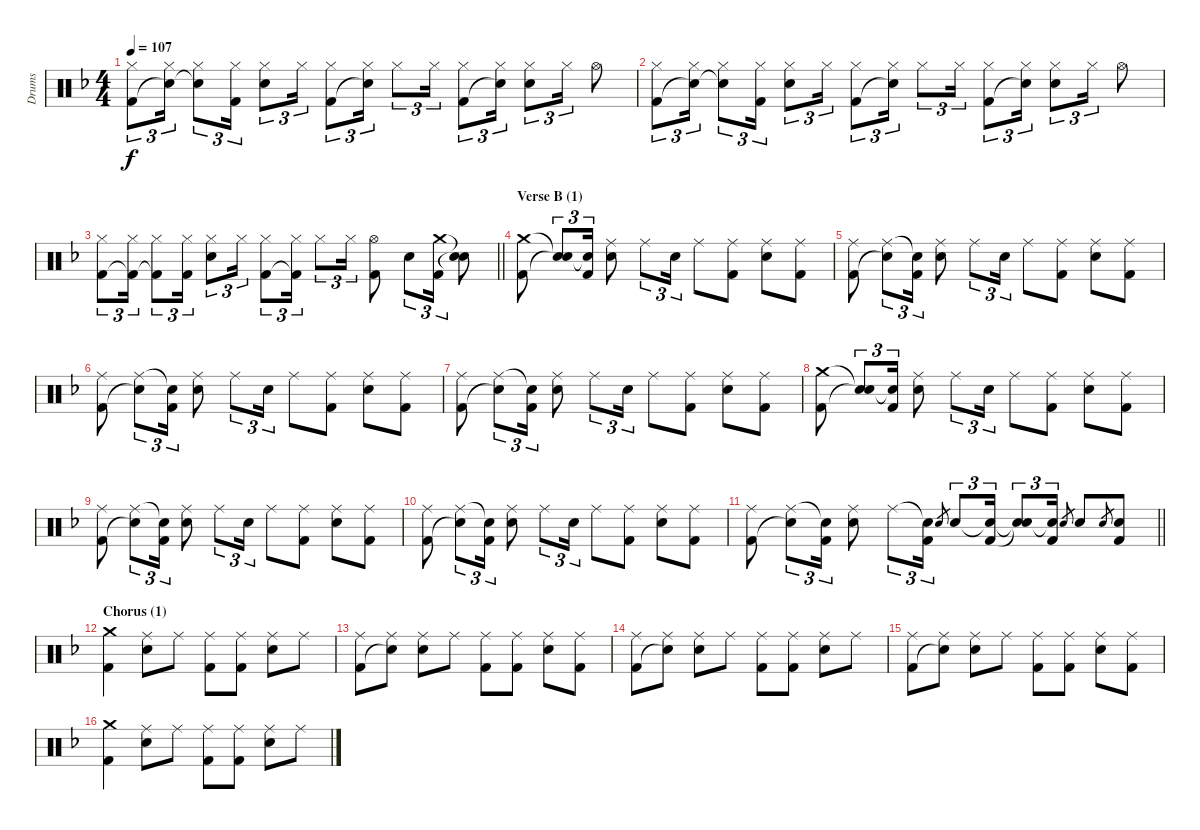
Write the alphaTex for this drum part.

\track ("Drums" "Drums") {instrument percussion}
\staff {score}
\articulation defaults
\ts (4 4)
\tempo 107
\clef neutral
\ks dminor
("Hi-Hat (closed)" "Kick (hit) 2").8{tu (3 2) dy f} ("Hi-Hat (closed)" "Snare (hit)"{t}).16{tu (3 2)} ("Hi-Hat (closed)" "Snare (hit)"{t}).8{tu (3 2)} ("Hi-Hat (closed)" "Kick (hit) 2").16{tu (3 2)} ("Hi-Hat (closed)" "Electric Snare (hit)").8{tu (3 2)} "Hi-Hat (closed)".16{tu (3 2)} ("Hi-Hat (closed)" "Kick (hit) 2").8{tu (3 2)} ("Hi-Hat (closed)" "Snare (hit)"{t}).16{tu (3 2)} "Hi-Hat (closed)".8{tu (3 2)} "Hi-Hat (closed)".16{tu (3 2)} ("Hi-Hat (closed)" "Kick (hit) 2").8{tu (3 2)} ("Hi-Hat (closed)" "Snare (hit)"{t}).16{tu (3 2)} ("Hi-Hat (closed)" "Electric Snare (hit)").8{tu (3 2)} "Hi-Hat (closed)".16{tu (3 2)} "Hi-Hat (open)".8 |
("Hi-Hat (closed)" "Kick (hit) 2").8{tu (3 2)} ("Hi-Hat (closed)" "Snare (hit)"{t}).16{tu (3 2)} ("Hi-Hat (closed)" "Snare (hit)"{t}).8{tu (3 2)} ("Hi-Hat (closed)" "Kick (hit) 2").16{tu (3 2)} ("Hi-Hat (closed)" "Electric Snare (hit)").8{tu (3 2)} "Hi-Hat (closed)".16{tu (3 2)} ("Hi-Hat (closed)" "Kick (hit) 2").8{tu (3 2)} ("Hi-Hat (closed)" "Snare (hit)"{t}).16{tu (3 2)} "Hi-Hat (closed)".8{tu (3 2)} "Hi-Hat (closed)".16{tu (3 2)} ("Hi-Hat (closed)" "Kick (hit) 2").8{tu (3 2)} ("Hi-Hat (closed)" "Snare (hit)"{t}).16{tu (3 2)} ("Hi-Hat (closed)" "Electric Snare (hit)").8{tu (3 2)} "Hi-Hat (closed)".16{tu (3 2)} "Hi-Hat (open)".8 |
\barLineRight lightlight
("Hi-Hat (closed)" "Kick (hit) 2").8{tu (3 2)} ("Hi-Hat (closed)" "Kick (hit) 2"{t}).16{tu (3 2)} ("Hi-Hat (closed)" "Kick (hit) 2"{t}).8{tu (3 2)} ("Hi-Hat (closed)" "Kick (hit) 2").16{tu (3 2)} ("Hi-Hat (closed)" "Electric Snare (hit)").8{tu (3 2)} "Hi-Hat (closed)".16{tu (3 2)} ("Hi-Hat (closed)" "Kick (hit) 2").8{tu (3 2)} ("Hi-Hat (closed)" "Kick (hit) 2"{t}).16{tu (3 2)} "Hi-Hat (closed)".8{tu (3 2)} "Hi-Hat (closed)".16{tu (3 2)} ("Hi-Hat (open)" "Kick (hit) 2").8 "Electric Snare (hit)".8{tu (3 2)} ("Crash medium (hit)" "Kick (hit) 2").16{tu (3 2)} ("Snare (hit)"{t} "Snare (hit)"{t}).8 |
\section ("" "Verse B (1)")
("Crash medium (hit)" "Kick (hit) 2").8 ("Snare (hit)"{t} "Snare (hit)"{t}).8{tu (3 2)} ("Snare (hit)"{t} "Kick (hit) 2").16{tu (3 2)} ("Ride (middle)" "Electric Snare (hit)").8 "Ride (middle)".8{tu (3 2)} "Electric Snare (hit)".16{tu (3 2)} "Ride (middle)".8 ("Ride (middle)" "Kick (hit) 2").8 ("Ride (middle)" "Electric Snare (hit)").8 ("Ride (middle)" "Kick (hit) 2").8 |
("Ride (middle)" "Kick (hit) 2").8 ("Ride (middle)" "Snare (hit)"{t}).8{tu (3 2)} ("Snare (hit)"{t} "Kick (hit) 2").16{tu (3 2)} ("Ride (middle)" "Electric Snare (hit)").8 "Ride (middle)".8{tu (3 2)} "Electric Snare (hit)".16{tu (3 2)} "Ride (middle)".8 ("Ride (middle)" "Kick (hit) 2").8 ("Ride (middle)" "Electric Snare (hit)").8 ("Ride (middle)" "Kick (hit) 2").8 |
("Ride (middle)" "Kick (hit) 2").8 ("Ride (middle)" "Snare (hit)"{t}).8{tu (3 2)} ("Snare (hit)"{t} "Kick (hit) 2").16{tu (3 2)} ("Ride (middle)" "Electric Snare (hit)").8 "Ride (middle)".8{tu (3 2)} "Electric Snare (hit)".16{tu (3 2)} "Ride (middle)".8 ("Ride (middle)" "Kick (hit) 2").8 ("Ride (middle)" "Electric Snare (hit)").8 ("Ride (middle)" "Kick (hit) 2").8 |
("Ride (middle)" "Kick (hit) 2").8 ("Ride (middle)" "Snare (hit)"{t}).8{tu (3 2)} ("Snare (hit)"{t} "Kick (hit) 2").16{tu (3 2)} ("Ride (middle)" "Electric Snare (hit)").8 "Ride (middle)".8{tu (3 2)} "Electric Snare (hit)".16{tu (3 2)} "Ride (middle)".8 ("Ride (middle)" "Kick (hit) 2").8 ("Ride (middle)" "Electric Snare (hit)").8 ("Ride (middle)" "Kick (hit) 2").8 |
("Crash medium (hit)" "Kick (hit) 2").8 ("Snare (hit)"{t} "Snare (hit)"{t}).8{tu (3 2)} ("Snare (hit)"{t} "Kick (hit) 2").16{tu (3 2)} ("Ride (middle)" "Electric Snare (hit)").8 "Ride (middle)".8{tu (3 2)} "Electric Snare (hit)".16{tu (3 2)} "Ride (middle)".8 ("Ride (middle)" "Kick (hit) 2").8 ("Ride (middle)" "Electric Snare (hit)").8 ("Ride (middle)" "Kick (hit) 2").8 |
("Ride (middle)" "Kick (hit) 2").8 ("Ride (middle)" "Snare (hit)"{t}).8{tu (3 2)} ("Snare (hit)"{t} "Kick (hit) 2").16{tu (3 2)} ("Ride (middle)" "Electric Snare (hit)").8 "Ride (middle)".8{tu (3 2)} "Electric Snare (hit)".16{tu (3 2)} "Ride (middle)".8 ("Ride (middle)" "Kick (hit) 2").8 ("Ride (middle)" "Electric Snare (hit)").8 ("Ride (middle)" "Kick (hit) 2").8 |
("Ride (middle)" "Kick (hit) 2").8 ("Ride (middle)" "Snare (hit)"{t}).8{tu (3 2)} ("Snare (hit)"{t} "Kick (hit) 2").16{tu (3 2)} ("Ride (middle)" "Electric Snare (hit)").8 "Ride (middle)".8{tu (3 2)} "Electric Snare (hit)".16{tu (3 2)} "Ride (middle)".8 ("Ride (middle)" "Kick (hit) 2").8 ("Ride (middle)" "Electric Snare (hit)").8 ("Ride (middle)" "Kick (hit) 2").8 |
\barLineRight lightlight
("Ride (middle)" "Kick (hit) 2").8 ("Ride (middle)" "Snare (hit)"{t}).8{tu (3 2)} ("Snare (hit)"{t} "Kick (hit) 2").16{tu (3 2)} ("Ride (middle)" "Electric Snare (hit)").8 "Ride (middle)".8{tu (3 2)} ("Snare (hit)"{t} "Kick (hit) 2").16{tu (3 2)} "Electric Snare (hit)".8{gr} "Electric Snare (hit)".8{tu (3 2)} ("Snare (hit)"{t} "Kick (hit) 2").16{tu (3 2)} ("Snare (hit)"{t} "Snare (hit)"{t}).8{tu (3 2)} ("Snare (hit)"{t} "Kick (hit) 2").16{tu (3 2)} "Electric Snare (hit)".8{gr} "Electric Snare (hit)".8 "Electric Snare (hit)".8{gr} ("Electric Snare (hit)" "Kick (hit) 2").8 |
\section ("" "Chorus (1)")
("Crash medium (hit)" "Kick (hit) 2").4 ("Ride (middle)" "Electric Snare (hit)").8 "Ride (middle)".8 ("Ride (middle)" "Kick (hit) 2").8 ("Ride (middle)" "Kick (hit) 2").8 ("Ride (middle)" "Electric Snare (hit)").8 "Ride (middle)".8 |
("Ride (middle)" "Kick (hit) 2").8 ("Ride (middle)" "Snare (hit)"{t}).8 ("Ride (middle)" "Electric Snare (hit)").8 "Ride (middle)".8 ("Ride (middle)" "Kick (hit) 2").8 ("Ride (middle)" "Kick (hit) 2").8 ("Ride (middle)" "Electric Snare (hit)").8 ("Ride (middle)" "Kick (hit) 2").8 |
("Ride (middle)" "Kick (hit) 2").8 ("Ride (middle)" "Snare (hit)"{t}).8 ("Ride (middle)" "Electric Snare (hit)").8 "Ride (middle)".8 ("Ride (middle)" "Kick (hit) 2").8 ("Ride (middle)" "Kick (hit) 2").8 ("Ride (middle)" "Electric Snare (hit)").8 "Ride (middle)".8 |
("Ride (middle)" "Kick (hit) 2").8 ("Ride (middle)" "Snare (hit)"{t}).8 ("Ride (middle)" "Electric Snare (hit)").8 "Ride (middle)".8 ("Ride (middle)" "Kick (hit) 2").8 ("Ride (middle)" "Kick (hit) 2").8 ("Ride (middle)" "Electric Snare (hit)").8 ("Ride (middle)" "Kick (hit) 2").8 |
("Crash medium (hit)" "Kick (hit) 2").4 ("Ride (middle)" "Electric Snare (hit)").8 "Ride (middle)".8 ("Ride (middle)" "Kick (hit) 2").8 ("Ride (middle)" "Kick (hit) 2").8 ("Ride (middle)" "Electric Snare (hit)").8 "Ride (middle)".8
